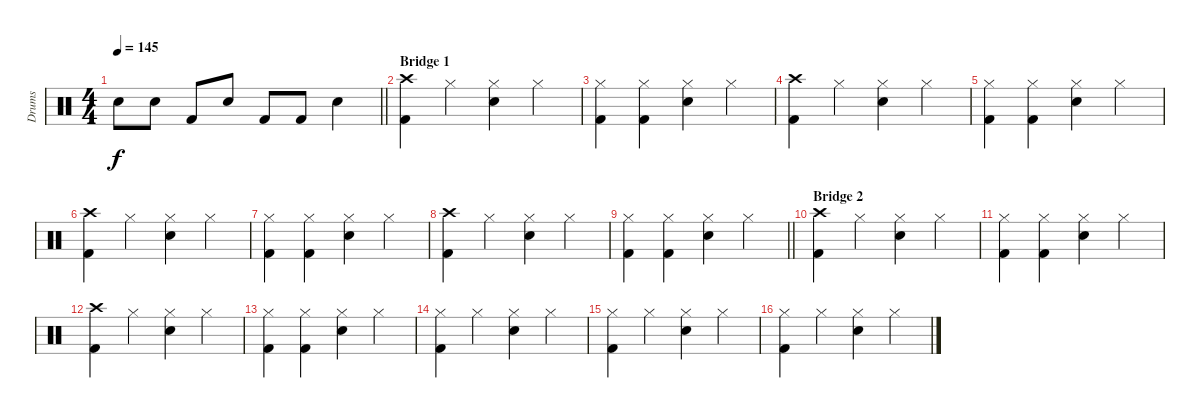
\track ("Drums" "Drums") {instrument percussion}
\staff {score}
\articulation defaults
\ts (4 4)
\tempo 145
\clef neutral
\barLineRight lightlight
\ks c "Electric Snare (hit)".8{dy f} "Electric Snare (hit)".8 "Kick (hit) 2".8 "Electric Snare (hit)".8 "Kick (hit) 2".8 "Kick (hit) 2".8 "Electric Snare (hit)".4
|
\section ("" "Bridge 1")
("Crash high (hit)" "Kick (hit) 2").4 "Hi-Hat (closed)".4 ("Hi-Hat (closed)" "Electric Snare (hit)").4 "Hi-Hat (closed)".4 |
("Hi-Hat (closed)" "Kick (hit) 2").4 ("Hi-Hat (closed)" "Kick (hit) 2").4 ("Hi-Hat (closed)" "Electric Snare (hit)").4 "Hi-Hat (closed)".4 |
("Crash high (hit)" "Kick (hit) 2").4 "Hi-Hat (closed)".4 ("Hi-Hat (closed)" "Electric Snare (hit)").4 "Hi-Hat (closed)".4 |
("Hi-Hat (closed)" "Kick (hit) 2").4 ("Hi-Hat (closed)" "Kick (hit) 2").4 ("Hi-Hat (closed)" "Electric Snare (hit)").4 "Hi-Hat (closed)".4 |
("Crash high (hit)" "Kick (hit) 2").4 "Hi-Hat (closed)".4 ("Hi-Hat (closed)" "Electric Snare (hit)").4 "Hi-Hat (closed)".4 |
("Hi-Hat (closed)" "Kick (hit) 2").4 ("Hi-Hat (closed)" "Kick (hit) 2").4 ("Hi-Hat (closed)" "Electric Snare (hit)").4 "Hi-Hat (closed)".4 |
("Crash high (hit)" "Kick (hit) 2").4 "Hi-Hat (closed)".4 ("Hi-Hat (closed)" "Electric Snare (hit)").4 "Hi-Hat (closed)".4 |
\barLineRight lightlight
("Hi-Hat (closed)" "Kick (hit) 2").4 ("Hi-Hat (closed)" "Kick (hit) 2").4 ("Hi-Hat (closed)" "Electric Snare (hit)").4 "Hi-Hat (closed)".4 |
\section ("" "Bridge 2")
("Crash high (hit)" "Kick (hit) 2").4 "Hi-Hat (closed)".4 ("Hi-Hat (closed)" "Electric Snare (hit)").4 "Hi-Hat (closed)".4 |
("Hi-Hat (closed)" "Kick (hit) 2").4 ("Hi-Hat (closed)" "Kick (hit) 2").4 ("Hi-Hat (closed)" "Electric Snare (hit)").4 "Hi-Hat (closed)".4 |
("Crash high (hit)" "Kick (hit) 2").4 "Hi-Hat (closed)".4 ("Hi-Hat (closed)" "Electric Snare (hit)").4 "Hi-Hat (closed)".4 |
("Hi-Hat (closed)" "Kick (hit) 2").4 ("Hi-Hat (closed)" "Kick (hit) 2").4 ("Hi-Hat (closed)" "Electric Snare (hit)").4 "Hi-Hat (closed)".4 |
("Hi-Hat (closed)" "Kick (hit) 2").4 "Hi-Hat (closed)".4 ("Hi-Hat (closed)" "Electric Snare (hit)").4 "Hi-Hat (closed)".4 |
("Hi-Hat (closed)" "Kick (hit) 2").4 "Hi-Hat (closed)".4 ("Hi-Hat (closed)" "Electric Snare (hit)").4 "Hi-Hat (closed)".4 |
("Hi-Hat (closed)" "Kick (hit) 2").4 "Hi-Hat (closed)".4 ("Hi-Hat (closed)" "Electric Snare (hit)").4 "Hi-Hat (closed)".4
